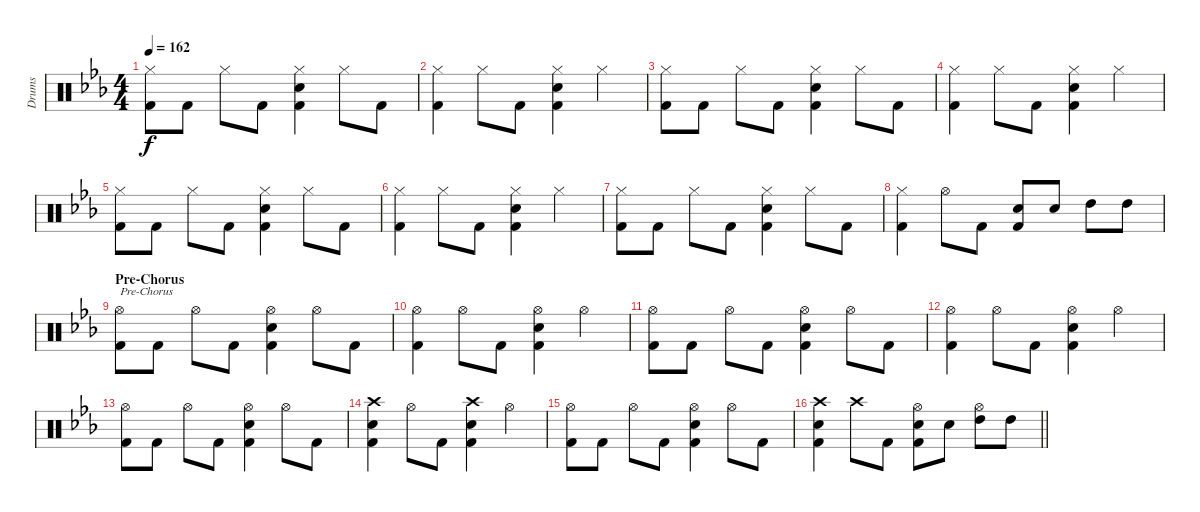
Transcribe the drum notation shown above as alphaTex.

\track ("Drums" "Drums") {instrument percussion}
\staff {score}
\articulation defaults
\ts (4 4)
\tempo 162
\clef neutral
\ks eb
("Hi-Hat (closed)" "Kick (hit) 2").8{dy f} "Kick (hit) 2".8 "Hi-Hat (closed)".8 "Kick (hit) 2".8 ("Hi-Hat (closed)" "Electric Snare (hit)" "Kick (hit) 2").4 "Hi-Hat (closed)".8 "Kick (hit) 2".8 |
("Hi-Hat (closed)" "Kick (hit) 2").4 "Hi-Hat (closed)".8 "Kick (hit) 2".8 ("Hi-Hat (closed)" "Electric Snare (hit)" "Kick (hit) 2").4 "Hi-Hat (closed)".4 |
("Hi-Hat (closed)" "Kick (hit) 2").8 "Kick (hit) 2".8 "Hi-Hat (closed)".8 "Kick (hit) 2".8 ("Hi-Hat (closed)" "Electric Snare (hit)" "Kick (hit) 2").4 "Hi-Hat (closed)".8 "Kick (hit) 2".8 |
("Hi-Hat (closed)" "Kick (hit) 2").4 "Hi-Hat (closed)".8 "Kick (hit) 2".8 ("Hi-Hat (closed)" "Electric Snare (hit)" "Kick (hit) 2").4 "Hi-Hat (closed)".4 |
("Hi-Hat (closed)" "Kick (hit) 2").8 "Kick (hit) 2".8 "Hi-Hat (closed)".8 "Kick (hit) 2".8 ("Hi-Hat (closed)" "Electric Snare (hit)" "Kick (hit) 2").4 "Hi-Hat (closed)".8 "Kick (hit) 2".8 |
("Hi-Hat (closed)" "Kick (hit) 2").4 "Hi-Hat (closed)".8 "Kick (hit) 2".8 ("Hi-Hat (closed)" "Electric Snare (hit)" "Kick (hit) 2").4 "Hi-Hat (closed)".4 |
("Hi-Hat (closed)" "Kick (hit) 2").8 "Kick (hit) 2".8 "Hi-Hat (closed)".8 "Kick (hit) 2".8 ("Hi-Hat (closed)" "Electric Snare (hit)" "Kick (hit) 2").4 "Hi-Hat (closed)".8 "Kick (hit) 2".8 |
("Hi-Hat (closed)" "Kick (hit) 2").4 "Hi-Hat (open)".8 "Kick (hit) 2".8 ("Electric Snare (hit)" "Kick (hit) 2").8 "Electric Snare (hit)".8 "High Tom (hit)".8 "High Tom (hit)".8 |
\section ("" "Pre-Chorus")
("Hi-Hat (open)" "Kick (hit) 2").8{txt "Pre-Chorus"} "Kick (hit) 2".8 "Hi-Hat (open)".8 "Kick (hit) 2".8 ("Hi-Hat (open)" "Electric Snare (hit)" "Kick (hit) 2").4 "Hi-Hat (open)".8 "Kick (hit) 2".8 |
("Hi-Hat (open)" "Kick (hit) 2").4 "Hi-Hat (open)".8 "Kick (hit) 2".8 ("Hi-Hat (open)" "Electric Snare (hit)" "Kick (hit) 2").4 "Hi-Hat (open)".4 |
("Hi-Hat (open)" "Kick (hit) 2").8 "Kick (hit) 2".8 "Hi-Hat (open)".8 "Kick (hit) 2".8 ("Hi-Hat (open)" "Electric Snare (hit)" "Kick (hit) 2").4 "Hi-Hat (open)".8 "Kick (hit) 2".8 |
("Hi-Hat (open)" "Kick (hit) 2").4 "Hi-Hat (open)".8 "Kick (hit) 2".8 ("Hi-Hat (open)" "Electric Snare (hit)" "Kick (hit) 2").4 "Hi-Hat (open)".4 |
("Hi-Hat (open)" "Kick (hit) 2").8 "Kick (hit) 2".8 "Hi-Hat (open)".8 "Kick (hit) 2".8 ("Hi-Hat (open)" "Electric Snare (hit)" "Kick (hit) 2").4 "Hi-Hat (open)".8 "Kick (hit) 2".8 |
("Crash high (hit)" "Electric Snare (hit)" "Kick (hit) 2").4 "Hi-Hat (open)".8 "Kick (hit) 2".8 ("Crash high (hit)" "Electric Snare (hit)" "Kick (hit) 2").4 "Hi-Hat (open)".4 |
("Hi-Hat (open)" "Kick (hit) 2").8 "Kick (hit) 2".8 "Hi-Hat (open)".8 "Kick (hit) 2".8 ("Hi-Hat (open)" "Electric Snare (hit)" "Kick (hit) 2").4 "Hi-Hat (open)".8 "Kick (hit) 2".8 |
\barLineRight lightlight
("Crash high (hit)" "Electric Snare (hit)" "Kick (hit) 2").4 "Crash high (hit)".8 "Kick (hit) 2".8 ("Hi-Hat (open)" "Electric Snare (hit)" "Kick (hit) 2").8 "Electric Snare (hit)".8 ("Hi-Hat (open)" "High Tom (hit)").8 "High Tom (hit)".8
